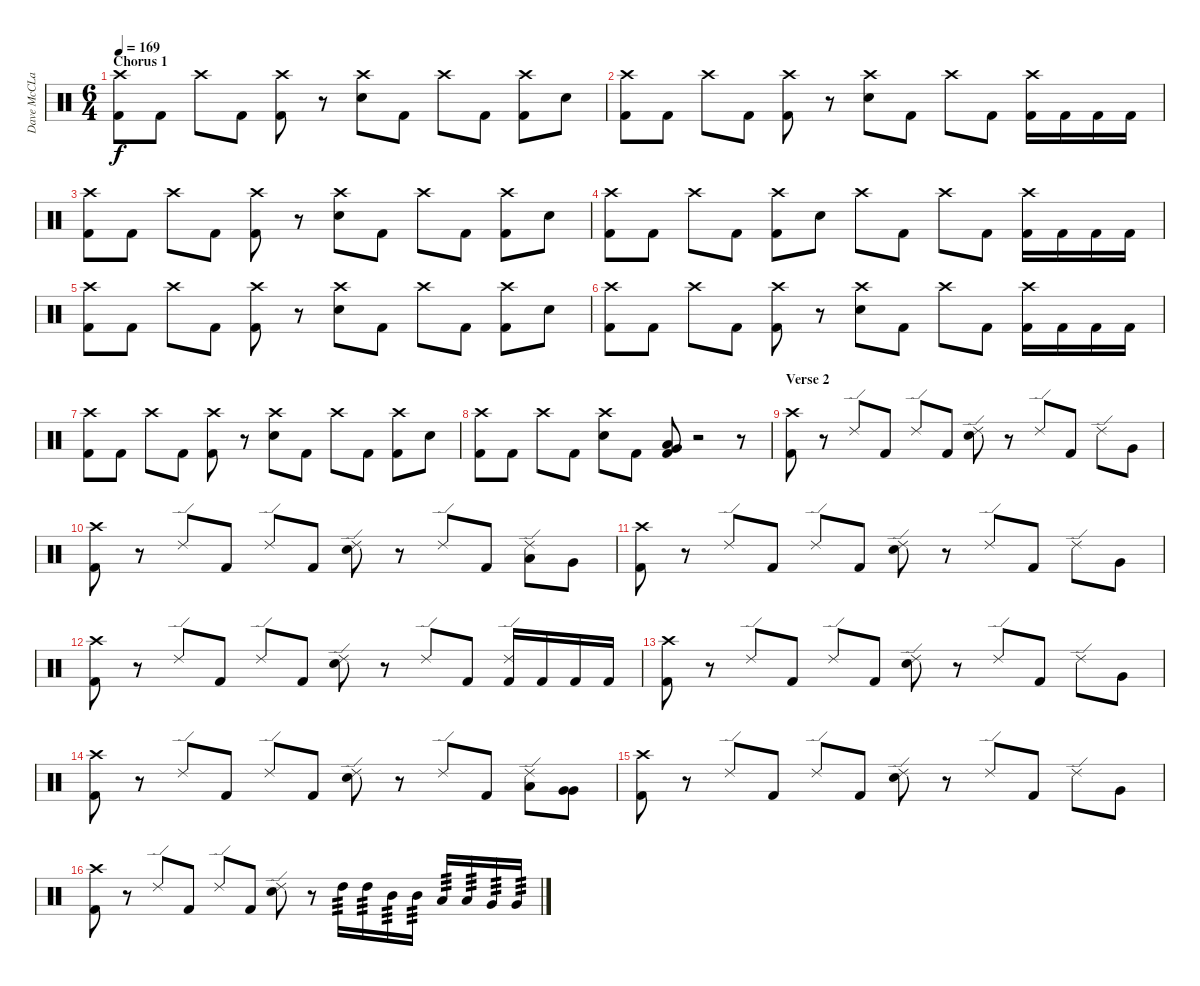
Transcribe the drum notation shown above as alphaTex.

\track ("Dave McCLain" "Dave McCLa") {instrument percussion}
\staff {score}
\articulation defaults
\ts (6 4)
\section ("" "Chorus 1")
\tempo 169
\clef neutral
\ks c
("Crash high (hit)" "Kick (hit) 2").8{dy f} "Kick (hit) 2".8 "Crash high (hit)".8 "Kick (hit) 2".8 ("Crash high (hit)" "Kick (hit) 2").8 r.8 ("Crash high (hit)" "Electric Snare (hit)").8 "Kick (hit) 2".8 "Crash high (hit)".8 "Kick (hit) 2".8 ("Crash high (hit)" "Kick (hit) 2").8 "Electric Snare (hit)".8 |
("Crash high (hit)" "Kick (hit) 2").8 "Kick (hit) 2".8 "Crash high (hit)".8 "Kick (hit) 2".8 ("Crash high (hit)" "Kick (hit) 2").8 r.8 ("Crash high (hit)" "Electric Snare (hit)").8 "Kick (hit) 2".8 "Crash high (hit)".8 "Kick (hit) 2".8 ("Crash high (hit)" "Kick (hit) 2").16 "Kick (hit) 2".16 "Kick (hit) 2".16 "Kick (hit) 2".16 |
("Crash high (hit)" "Kick (hit) 2").8 "Kick (hit) 2".8 "Crash high (hit)".8 "Kick (hit) 2".8 ("Crash high (hit)" "Kick (hit) 2").8 r.8 ("Crash high (hit)" "Electric Snare (hit)").8 "Kick (hit) 2".8 "Crash high (hit)".8 "Kick (hit) 2".8 ("Crash high (hit)" "Kick (hit) 2").8 "Electric Snare (hit)".8 |
("Crash high (hit)" "Kick (hit) 2").8 "Kick (hit) 2".8 "Crash high (hit)".8 "Kick (hit) 2".8 ("Crash high (hit)" "Kick (hit) 2").8 "Electric Snare (hit)".8 "Crash high (hit)".8 "Kick (hit) 2".8 "Crash high (hit)".8 "Kick (hit) 2".8 ("Crash high (hit)" "Kick (hit) 2").16 "Kick (hit) 2".16 "Kick (hit) 2".16 "Kick (hit) 2".16 |
("Crash high (hit)" "Kick (hit) 2").8 "Kick (hit) 2".8 "Crash high (hit)".8 "Kick (hit) 2".8 ("Crash high (hit)" "Kick (hit) 2").8 r.8 ("Crash high (hit)" "Electric Snare (hit)").8 "Kick (hit) 2".8 "Crash high (hit)".8 "Kick (hit) 2".8 ("Crash high (hit)" "Kick (hit) 2").8 "Electric Snare (hit)".8 |
("Crash high (hit)" "Kick (hit) 2").8 "Kick (hit) 2".8 "Crash high (hit)".8 "Kick (hit) 2".8 ("Crash high (hit)" "Kick (hit) 2").8 r.8 ("Crash high (hit)" "Electric Snare (hit)").8 "Kick (hit) 2".8 "Crash high (hit)".8 "Kick (hit) 2".8 ("Crash high (hit)" "Kick (hit) 2").16 "Kick (hit) 2".16 "Kick (hit) 2".16 "Kick (hit) 2".16 |
("Crash high (hit)" "Kick (hit) 2").8 "Kick (hit) 2".8 "Crash high (hit)".8 "Kick (hit) 2".8 ("Crash high (hit)" "Kick (hit) 2").8 r.8 ("Crash high (hit)" "Electric Snare (hit)").8 "Kick (hit) 2".8 "Crash high (hit)".8 "Kick (hit) 2".8 ("Crash high (hit)" "Kick (hit) 2").8 "Electric Snare (hit)".8 |
("Crash high (hit)" "Kick (hit) 2").8 "Kick (hit) 2".8 "Crash high (hit)".8 "Kick (hit) 2".8 ("Crash high (hit)" "Electric Snare (hit)").8 "Kick (hit) 2".8 ("Low Tom (hit)" "Very Low Tom (hit)" "Kick (hit) 2").8 r.2 r.8 |
\section ("" "Verse 2")
("Crash high (hit)" "Kick (hit) 2").8 r.8 "Ride (edge) 2".8 "Kick (hit) 2".8 "Ride (edge) 2".8 "Kick (hit) 2".8 ("Ride (edge) 2" "Electric Snare (hit)").8 r.8 "Ride (edge) 2".8 "Kick (hit) 2".8 "Ride (edge) 2".8 "Very Low Tom (hit)".8 |
("Crash high (hit)" "Kick (hit) 2").8 r.8 "Ride (edge) 2".8 "Kick (hit) 2".8 "Ride (edge) 2".8 "Kick (hit) 2".8 ("Ride (edge) 2" "Electric Snare (hit)").8 r.8 "Ride (edge) 2".8 "Kick (hit) 2".8 ("Ride (edge) 2" "Low Tom (hit)").8 "Very Low Tom (hit)".8 |
("Crash high (hit)" "Kick (hit) 2").8 r.8 "Ride (edge) 2".8 "Kick (hit) 2".8 "Ride (edge) 2".8 "Kick (hit) 2".8 ("Ride (edge) 2" "Electric Snare (hit)").8 r.8 "Ride (edge) 2".8 "Kick (hit) 2".8 "Ride (edge) 2".8 "Very Low Tom (hit)".8 |
("Crash high (hit)" "Kick (hit) 2").8 r.8 "Ride (edge) 2".8 "Kick (hit) 2".8 "Ride (edge) 2".8 "Kick (hit) 2".8 ("Ride (edge) 2" "Electric Snare (hit)").8 r.8 "Ride (edge) 2".8 "Kick (hit) 2".8 ("Ride (edge) 2" "Kick (hit) 2").16 "Kick (hit) 2".16 "Kick (hit) 2".16 "Kick (hit) 2".16 |
("Crash high (hit)" "Kick (hit) 2").8 r.8 "Ride (edge) 2".8 "Kick (hit) 2".8 "Ride (edge) 2".8 "Kick (hit) 2".8 ("Ride (edge) 2" "Electric Snare (hit)").8 r.8 "Ride (edge) 2".8 "Kick (hit) 2".8 "Ride (edge) 2".8 "Very Low Tom (hit)".8 |
("Crash high (hit)" "Kick (hit) 2").8 r.8 "Ride (edge) 2".8 "Kick (hit) 2".8 "Ride (edge) 2".8 "Kick (hit) 2".8 ("Ride (edge) 2" "Electric Snare (hit)").8 r.8 "Ride (edge) 2".8 "Kick (hit) 2".8 ("Ride (edge) 2" "Low Tom (hit)").8 ("Very Low Tom (hit)" "Very Low Tom (hit)").8 |
("Crash high (hit)" "Kick (hit) 2").8 r.8 "Ride (edge) 2".8 "Kick (hit) 2".8 "Ride (edge) 2".8 "Kick (hit) 2".8 ("Ride (edge) 2" "Electric Snare (hit)").8 r.8 "Ride (edge) 2".8 "Kick (hit) 2".8 "Ride (edge) 2".8 "Very Low Tom (hit)".8 |
("Crash high (hit)" "Kick (hit) 2").8 r.8 "Ride (edge) 2".8 "Kick (hit) 2".8 "Ride (edge) 2".8 "Kick (hit) 2".8 ("Ride (edge) 2" "Electric Snare (hit)").8 r.8 "High Tom (hit)".16{tp 3} "High Tom (hit)".16{tp 3} "Mid Tom (hit)".16{tp 3} "Mid Tom (hit)".16{tp 3} "Low Tom (hit)".16{tp 3} "Low Tom (hit)".16{tp 3} "Very Low Tom (hit)".16{tp 3} "Very Low Tom (hit)".16{tp 3}
